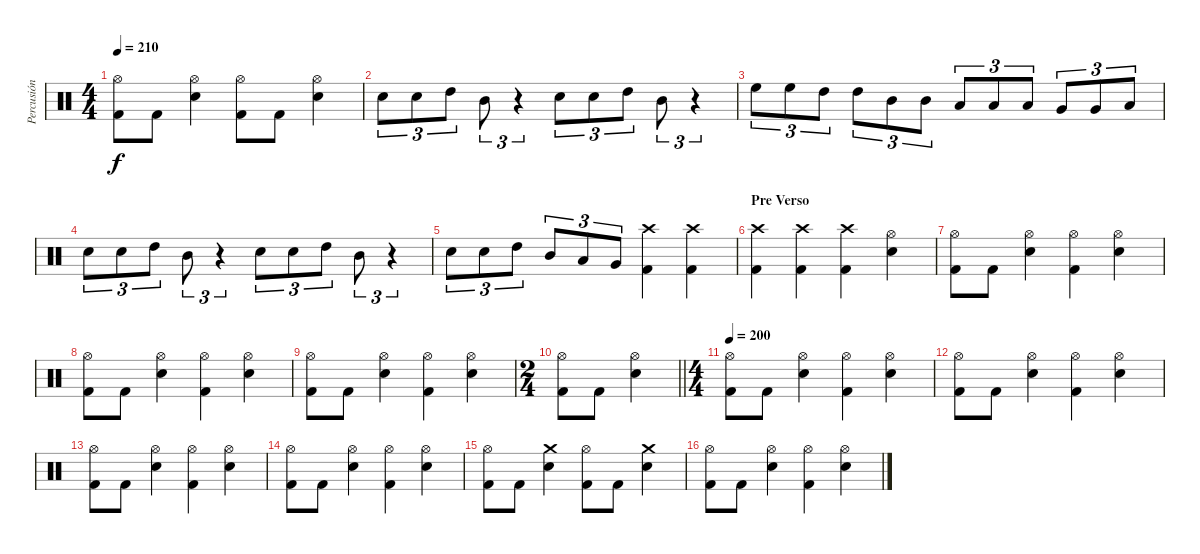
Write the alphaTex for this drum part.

\track ("Percusión" "Percusión") {instrument percussion}
\staff {score}
\articulation defaults
\ts (4 4)
\tempo 210
\clef neutral
\ks c
("Hi-Hat (open)" "Kick (hit) 2").8{dy f} "Kick (hit) 2".8 ("Hi-Hat (open)" "Snare (hit) 2").4 ("Hi-Hat (open)" "Kick (hit) 2").8 "Kick (hit) 2".8 ("Hi-Hat (open)" "Snare (hit) 2").4 |
"Snare (hit) 2".8{tu (3 2)} "Snare (hit) 2".8{tu (3 2)} "High Tom (hit)".8{tu (3 2)} "Mid Tom (hit)".8{tu (3 2)} r.4{tu (3 2)} "Snare (hit) 2".8{tu (3 2)} "Snare (hit) 2".8{tu (3 2)} "High Tom (hit)".8{tu (3 2)} "Mid Tom (hit)".8{tu (3 2)} r.4{tu (3 2)} |
"High Floor Tom (hit)".8{tu (3 2)} "High Floor Tom (hit)".8{tu (3 2)} "High Tom (hit)".8{tu (3 2)} "High Tom (hit)".8{tu (3 2)} "Mid Tom (hit)".8{tu (3 2)} "Mid Tom (hit)".8{tu (3 2)} "Low Tom (hit)".8{tu (3 2)} "Low Tom (hit)".8{tu (3 2)} "Low Tom (hit)".8{tu (3 2)} "Very Low Tom (hit)".8{tu (3 2)} "Very Low Tom (hit)".8{tu (3 2)} "Low Floor Tom (hit)".8{tu (3 2)} |
"Snare (hit) 2".8{tu (3 2)} "Snare (hit) 2".8{tu (3 2)} "High Tom (hit)".8{tu (3 2)} "Mid Tom (hit)".8{tu (3 2)} r.4{tu (3 2)} "Snare (hit) 2".8{tu (3 2)} "Snare (hit) 2".8{tu (3 2)} "High Tom (hit)".8{tu (3 2)} "Mid Tom (hit)".8{tu (3 2)} r.4{tu (3 2)} |
"Snare (hit) 2".8{tu (3 2)} "Snare (hit) 2".8{tu (3 2)} "High Tom (hit)".8{tu (3 2)} "Mid Tom (hit)".8{tu (3 2)} "Low Tom (hit)".8{tu (3 2)} "Very Low Tom (hit)".8{tu (3 2)} ("Kick (hit) 2" "Crash high (hit)").4 ("Kick (hit) 2" "Crash high (hit)").4 |
\section ("" "Pre Verso")
("Crash high (hit)" "Kick (hit) 2").4 ("Crash high (hit)" "Kick (hit) 2").4 ("Crash high (hit)" "Kick (hit) 2").4 ("Snare (hit) 2" "Hi-Hat (open)").4 |
("Hi-Hat (open)" "Kick (hit) 2").8 "Kick (hit) 2".8 ("Snare (hit) 2" "Hi-Hat (open)").4 ("Hi-Hat (open)" "Kick (hit) 2").4 ("Snare (hit) 2" "Hi-Hat (open)").4 |
("Hi-Hat (open)" "Kick (hit) 2").8 "Kick (hit) 2".8 ("Snare (hit) 2" "Hi-Hat (open)").4 ("Hi-Hat (open)" "Kick (hit) 2").4 ("Snare (hit) 2" "Hi-Hat (open)").4 |
("Hi-Hat (open)" "Kick (hit) 2").8 "Kick (hit) 2".8 ("Snare (hit) 2" "Hi-Hat (open)").4 ("Hi-Hat (open)" "Kick (hit) 2").4 ("Snare (hit) 2" "Hi-Hat (open)").4 |
\ts (2 4)
\barLineRight lightlight
("Hi-Hat (open)" "Kick (hit) 2").8 "Kick (hit) 2".8 ("Snare (hit) 2" "Hi-Hat (open)").4 |
\ts (4 4)
\section ("" "")
\tempo 200
("Hi-Hat (open)" "Kick (hit) 2").8 "Kick (hit) 2".8 ("Snare (hit) 2" "Hi-Hat (open)").4 ("Hi-Hat (open)" "Kick (hit) 2").4 ("Snare (hit) 2" "Hi-Hat (open)").4 |
("Hi-Hat (open)" "Kick (hit) 2").8 "Kick (hit) 2".8 ("Snare (hit) 2" "Hi-Hat (open)").4 ("Hi-Hat (open)" "Kick (hit) 2").4 ("Snare (hit) 2" "Hi-Hat (open)").4 |
("Hi-Hat (open)" "Kick (hit) 2").8 "Kick (hit) 2".8 ("Snare (hit) 2" "Hi-Hat (open)").4 ("Hi-Hat (open)" "Kick (hit) 2").4 ("Snare (hit) 2" "Hi-Hat (open)").4 |
("Hi-Hat (open)" "Kick (hit) 2").8 "Kick (hit) 2".8 ("Snare (hit) 2" "Hi-Hat (open)").4 ("Hi-Hat (open)" "Kick (hit) 2").4 ("Hi-Hat (open)" "Snare (hit) 2").4 |
("Hi-Hat (open)" "Kick (hit) 2").8 "Kick (hit) 2".8 ("Snare (hit) 2" "Crash medium (hit)").4 ("Hi-Hat (open)" "Kick (hit) 2").8 "Kick (hit) 2".8 ("Snare (hit) 2" "Crash medium (hit)").4 |
("Hi-Hat (open)" "Kick (hit) 2").8 "Kick (hit) 2".8 ("Snare (hit) 2" "Hi-Hat (open)").4 ("Hi-Hat (open)" "Kick (hit) 2").4 ("Hi-Hat (open)" "Snare (hit) 2").4
